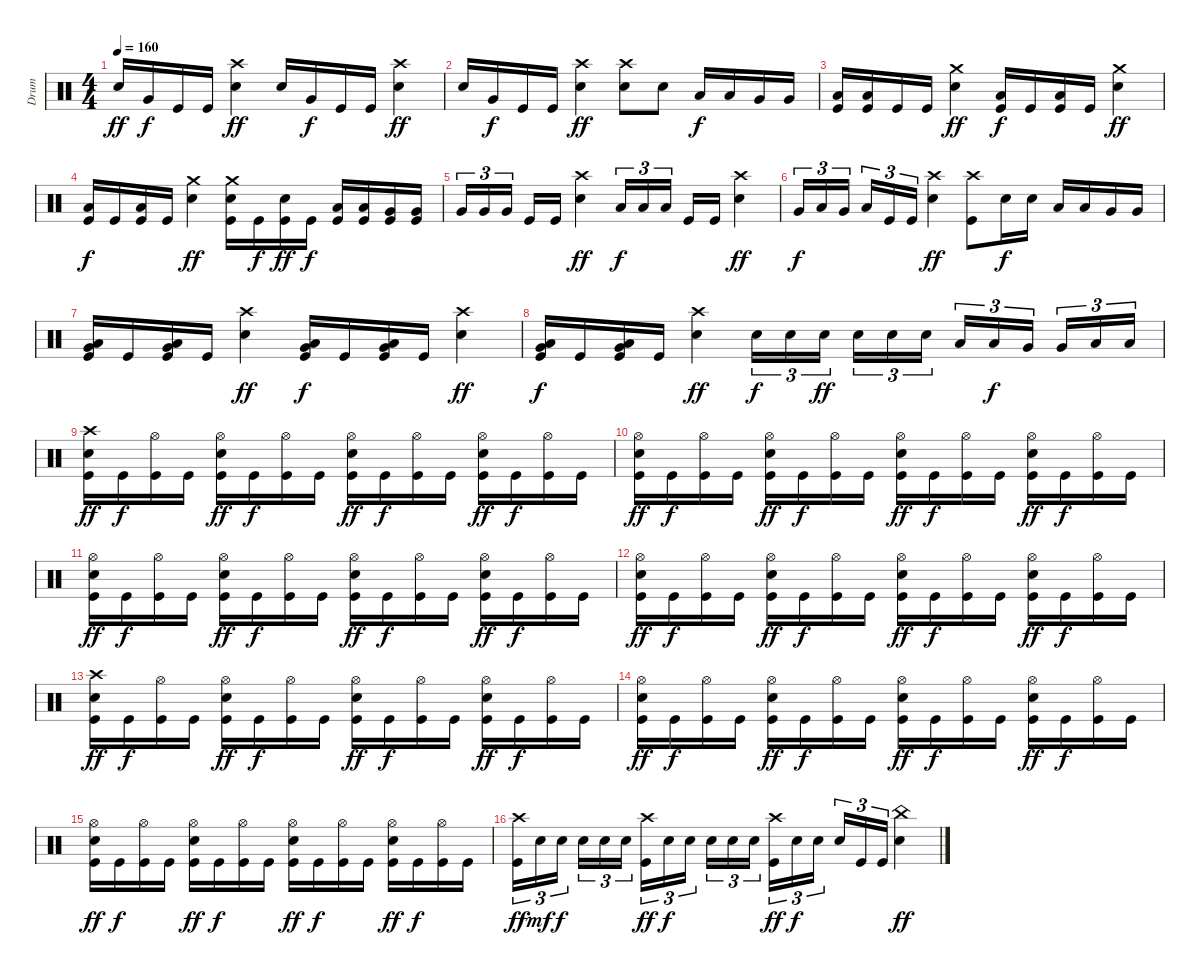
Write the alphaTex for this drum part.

\track ("Drum" "Drum") {instrument percussion}
\staff {score}
\articulation defaults
\ts (4 4)
\tempo 160
\clef neutral
\ks c "Electric Snare (hit)".16{dy ff} "Very Low Tom (hit)".16{dy f} "Kick (hit)".16 "Kick (hit)".16
("Electric Snare (hit)" "Crash high (hit)").4{dy ff} "Electric Snare (hit)".16 "Very Low Tom (hit)".16{dy f} "Kick (hit)".16 "Kick (hit)".16 ("Electric Snare (hit)" "Crash high (hit)").4{dy ff} |
"Electric Snare (hit)".16 "Very Low Tom (hit)".16{dy f} "Kick (hit)".16 "Kick (hit)".16 ("Electric Snare (hit)" "Crash high (hit)").4{dy ff} ("Electric Snare (hit)" "Crash high (hit)").8 "Electric Snare (hit)".8 "Low Tom (hit)".16{dy f} "Low Tom (hit)".16 "Very Low Tom (hit)".16 "Very Low Tom (hit)".16 |
("Kick (hit)" "Low Floor Tom (hit)").16 ("Kick (hit)" "Low Floor Tom (hit)").16 "Kick (hit)".16 "Kick (hit)".16 ("Electric Snare (hit)" "Crash medium (hit)").4{dy ff} ("Kick (hit)" "Low Floor Tom (hit)").16{dy f} "Kick (hit)".16 ("Kick (hit)" "Low Floor Tom (hit)").16 "Kick (hit)".16 ("Electric Snare (hit)" "Crash medium (hit)").4{dy ff} |
("Kick (hit)" "Low Floor Tom (hit)").16{dy f} "Kick (hit)".16 ("Kick (hit)" "Low Floor Tom (hit)").16 "Kick (hit)".16 ("Electric Snare (hit)" "Crash medium (hit)").4{dy ff} ("Kick (hit)" "Electric Snare (hit)" "Crash medium (hit)").16 "Kick (hit)".16{dy f} ("Kick (hit)" "Electric Snare (hit)").16{dy ff} "Kick (hit)".16{dy f} ("Kick (hit)" "Low Tom (hit)").16 ("Kick (hit)" "Low Tom (hit)").16 ("Kick (hit)" "Very Low Tom (hit)").16 ("Kick (hit)" "Very Low Tom (hit)").16 |
"Very Low Tom (hit)".16{tu (3 2)} "Very Low Tom (hit)".16{tu (3 2)} "Very Low Tom (hit)".16{tu (3 2)} "Kick (hit)".16 "Kick (hit)".16 ("Electric Snare (hit)" "Crash high (hit)").4{dy ff} "Low Floor Tom (hit)".16{tu (3 2) dy f} "Low Floor Tom (hit)".16{tu (3 2)} "Low Floor Tom (hit)".16{tu (3 2)} "Kick (hit)".16 "Kick (hit)".16 ("Electric Snare (hit)" "Crash high (hit)").4{dy ff} |
"Very Low Tom (hit)".16{tu (3 2) dy f} "Low Tom (hit)".16{tu (3 2)} "Very Low Tom (hit)".16{tu (3 2)} "Low Tom (hit)".16{tu (3 2)} "Kick (hit)".16{tu (3 2)} "Kick (hit)".16{tu (3 2)} ("Electric Snare (hit)" "Crash high (hit)").4{dy ff} ("Kick (hit)" "Crash high (hit)").8 "Electric Snare (hit)".16{dy f} "Electric Snare (hit)".16 "Low Tom (hit)".16 "Low Tom (hit)".16 "Very Low Tom (hit)".16 "Very Low Tom (hit)".16 |
("Kick (hit)" "Very Low Tom (hit)" "Low Floor Tom (hit)").16 "Kick (hit)".16 ("Kick (hit)" "Very Low Tom (hit)" "Low Floor Tom (hit)").16 "Kick (hit)".16 ("Electric Snare (hit)" "Crash high (hit)").4{dy ff} ("Kick (hit)" "Very Low Tom (hit)" "Low Floor Tom (hit)").16{dy f} "Kick (hit)".16 ("Kick (hit)" "Very Low Tom (hit)" "Low Floor Tom (hit)").16 "Kick (hit)".16 ("Electric Snare (hit)" "Crash high (hit)").4{dy ff} |
("Kick (hit)" "Very Low Tom (hit)" "Low Floor Tom (hit)").16{dy f} "Kick (hit)".16 ("Kick (hit)" "Very Low Tom (hit)" "Low Floor Tom (hit)").16 "Kick (hit)".16 ("Electric Snare (hit)" "Crash high (hit)").4{dy ff} "Electric Snare (hit)".16{tu (3 2) dy f} "Electric Snare (hit)".16{tu (3 2)} "Electric Snare (hit)".16{tu (3 2) dy ff} "Electric Snare (hit)".16{tu (3 2)} "Electric Snare (hit)".16{tu (3 2)} "Electric Snare (hit)".16{tu (3 2)} "Low Tom (hit)".16{tu (3 2)} "Low Tom (hit)".16{tu (3 2) dy f} "Very Low Tom (hit)".16{tu (3 2)} "Very Low Tom (hit)".16{tu (3 2)} "Low Floor Tom (hit)".16{tu (3 2)} "Low Floor Tom (hit)".16{tu (3 2)} |
("Kick (hit)" "Electric Snare (hit)" "Crash high (hit)").16{dy ff} "Kick (hit)".16{dy f} ("Kick (hit)" "Hi-Hat (open)").16 "Kick (hit)".16 ("Kick (hit)" "Electric Snare (hit)" "Hi-Hat (open)").16{dy ff} "Kick (hit)".16{dy f} ("Kick (hit)" "Hi-Hat (open)").16 "Kick (hit)".16 ("Kick (hit)" "Electric Snare (hit)" "Hi-Hat (open)").16{dy ff} "Kick (hit)".16{dy f} ("Kick (hit)" "Hi-Hat (open)").16 "Kick (hit)".16 ("Kick (hit)" "Electric Snare (hit)" "Hi-Hat (open)").16{dy ff} "Kick (hit)".16{dy f} ("Kick (hit)" "Hi-Hat (open)").16 "Kick (hit)".16 |
("Kick (hit)" "Electric Snare (hit)" "Hi-Hat (open)").16{dy ff} "Kick (hit)".16{dy f} ("Kick (hit)" "Hi-Hat (open)").16 "Kick (hit)".16 ("Kick (hit)" "Electric Snare (hit)" "Hi-Hat (open)").16{dy ff} "Kick (hit)".16{dy f} ("Kick (hit)" "Hi-Hat (open)").16 "Kick (hit)".16 ("Kick (hit)" "Electric Snare (hit)" "Hi-Hat (open)").16{dy ff} "Kick (hit)".16{dy f} ("Kick (hit)" "Hi-Hat (open)").16 "Kick (hit)".16 ("Kick (hit)" "Electric Snare (hit)" "Hi-Hat (open)").16{dy ff} "Kick (hit)".16{dy f} ("Kick (hit)" "Hi-Hat (open)").16 "Kick (hit)".16 |
("Kick (hit)" "Electric Snare (hit)" "Hi-Hat (open)").16{dy ff} "Kick (hit)".16{dy f} ("Kick (hit)" "Hi-Hat (open)").16 "Kick (hit)".16 ("Kick (hit)" "Electric Snare (hit)" "Hi-Hat (open)").16{dy ff} "Kick (hit)".16{dy f} ("Kick (hit)" "Hi-Hat (open)").16 "Kick (hit)".16 ("Kick (hit)" "Electric Snare (hit)" "Hi-Hat (open)").16{dy ff} "Kick (hit)".16{dy f} ("Kick (hit)" "Hi-Hat (open)").16 "Kick (hit)".16 ("Kick (hit)" "Electric Snare (hit)" "Hi-Hat (open)").16{dy ff} "Kick (hit)".16{dy f} ("Kick (hit)" "Hi-Hat (open)").16 "Kick (hit)".16 |
("Kick (hit)" "Electric Snare (hit)" "Hi-Hat (open)").16{dy ff} "Kick (hit)".16{dy f} ("Kick (hit)" "Hi-Hat (open)").16 "Kick (hit)".16 ("Kick (hit)" "Electric Snare (hit)" "Hi-Hat (open)").16{dy ff} "Kick (hit)".16{dy f} ("Kick (hit)" "Hi-Hat (open)").16 "Kick (hit)".16 ("Kick (hit)" "Electric Snare (hit)" "Hi-Hat (open)").16{dy ff} "Kick (hit)".16{dy f} ("Kick (hit)" "Hi-Hat (open)").16 "Kick (hit)".16 ("Kick (hit)" "Electric Snare (hit)" "Hi-Hat (open)").16{dy ff} "Kick (hit)".16{dy f} ("Kick (hit)" "Hi-Hat (open)").16 "Kick (hit)".16 |
("Kick (hit)" "Electric Snare (hit)" "Crash high (hit)").16{dy ff} "Kick (hit)".16{dy f} ("Kick (hit)" "Hi-Hat (open)").16 "Kick (hit)".16 ("Kick (hit)" "Electric Snare (hit)" "Hi-Hat (open)").16{dy ff} "Kick (hit)".16{dy f} ("Kick (hit)" "Hi-Hat (open)").16 "Kick (hit)".16 ("Kick (hit)" "Electric Snare (hit)" "Hi-Hat (open)").16{dy ff} "Kick (hit)".16{dy f} ("Kick (hit)" "Hi-Hat (open)").16 "Kick (hit)".16 ("Kick (hit)" "Electric Snare (hit)" "Hi-Hat (open)").16{dy ff} "Kick (hit)".16{dy f} ("Kick (hit)" "Hi-Hat (open)").16 "Kick (hit)".16 |
("Kick (hit)" "Electric Snare (hit)" "Hi-Hat (open)").16{dy ff} "Kick (hit)".16{dy f} ("Kick (hit)" "Hi-Hat (open)").16 "Kick (hit)".16 ("Kick (hit)" "Electric Snare (hit)" "Hi-Hat (open)").16{dy ff} "Kick (hit)".16{dy f} ("Kick (hit)" "Hi-Hat (open)").16 "Kick (hit)".16 ("Kick (hit)" "Electric Snare (hit)" "Hi-Hat (open)").16{dy ff} "Kick (hit)".16{dy f} ("Kick (hit)" "Hi-Hat (open)").16 "Kick (hit)".16 ("Kick (hit)" "Electric Snare (hit)" "Hi-Hat (open)").16{dy ff} "Kick (hit)".16{dy f} ("Kick (hit)" "Hi-Hat (open)").16 "Kick (hit)".16 |
("Kick (hit)" "Electric Snare (hit)" "Hi-Hat (open)").16{dy ff} "Kick (hit)".16{dy f} ("Kick (hit)" "Hi-Hat (open)").16 "Kick (hit)".16 ("Kick (hit)" "Electric Snare (hit)" "Hi-Hat (open)").16{dy ff} "Kick (hit)".16{dy f} ("Kick (hit)" "Hi-Hat (open)").16 "Kick (hit)".16 ("Kick (hit)" "Electric Snare (hit)" "Hi-Hat (open)").16{dy ff} "Kick (hit)".16{dy f} ("Kick (hit)" "Hi-Hat (open)").16 "Kick (hit)".16 ("Kick (hit)" "Electric Snare (hit)" "Hi-Hat (open)").16{dy ff} "Kick (hit)".16{dy f} ("Kick (hit)" "Hi-Hat (open)").16 "Kick (hit)".16 |
("Kick (hit)" "Crash high (hit)").16{tu (3 2) dy ff} "Electric Snare (hit)".16{tu (3 2) dy mf} "Electric Snare (hit)".16{tu (3 2) dy f} "Electric Snare (hit)".16{tu (3 2)} "Electric Snare (hit)".16{tu (3 2)} "Electric Snare (hit)".16{tu (3 2)} ("Kick (hit)" "Crash high (hit)").16{tu (3 2) dy ff} "Electric Snare (hit)".16{tu (3 2) dy f} "Electric Snare (hit)".16{tu (3 2)} "Electric Snare (hit)".16{tu (3 2)} "Electric Snare (hit)".16{tu (3 2)} "Electric Snare (hit)".16{tu (3 2)} ("Kick (hit)" "Crash high (hit)").16{tu (3 2) dy ff} "Electric Snare (hit)".16{tu (3 2) dy f} "Electric Snare (hit)".16{tu (3 2)} "Electric Snare (hit)".16{tu (3 2)} "Kick (hit)".16{tu (3 2)} "Kick (hit)".16{tu (3 2)} ("Electric Snare (hit)" "China (hit)").4{dy ff}
